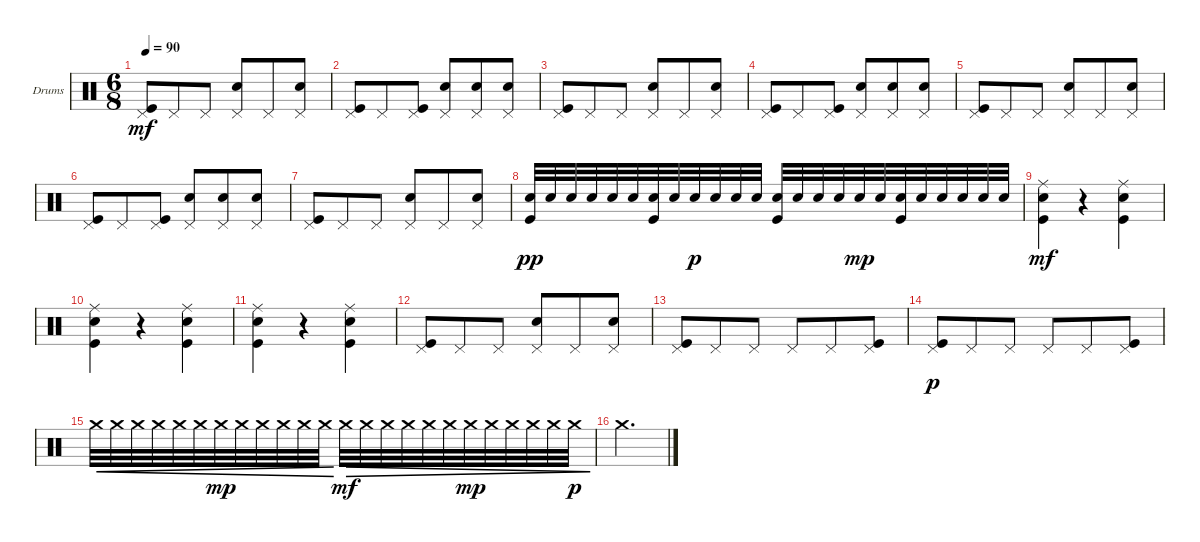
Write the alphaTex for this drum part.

\defaultSystemsLayout 4
\bracketExtendMode groupsimilarinstruments
\firstSystemTrackNameOrientation horizontal
\otherSystemsTrackNameOrientation horizontal
\track ("Drumkit" "Drums") {instrument percussion}
\staff {score}
\articulation defaults
\ts (6 8)
\tempo 90
\clef neutral
\scale
0.333333
\ks c
("Kick (hit)" "Pedal Hi-Hat (hit)").8{dy mf} "Pedal Hi-Hat (hit)".8 "Pedal Hi-Hat (hit)".8 ("Snare (hit) 2" "Pedal Hi-Hat (hit)").8 "Pedal Hi-Hat (hit)".8 ("Snare (hit) 2" "Pedal Hi-Hat (hit)").8 |
\scale
0.333333 ("Kick (hit)" "Pedal Hi-Hat (hit)").8 "Pedal Hi-Hat (hit)".8 ("Kick (hit)" "Pedal Hi-Hat (hit)").8 ("Snare (hit) 2" "Pedal Hi-Hat (hit)").8 ("Snare (hit) 2" "Pedal Hi-Hat (hit)").8 ("Snare (hit) 2" "Pedal Hi-Hat (hit)").8 |
\scale
0.333333 ("Kick (hit)" "Pedal Hi-Hat (hit)").8 "Pedal Hi-Hat (hit)".8 "Pedal Hi-Hat (hit)".8 ("Snare (hit) 2" "Pedal Hi-Hat (hit)").8 "Pedal Hi-Hat (hit)".8 ("Snare (hit) 2" "Pedal Hi-Hat (hit)").8 |
\scale
0.333333 ("Kick (hit)" "Pedal Hi-Hat (hit)").8 "Pedal Hi-Hat (hit)".8 ("Kick (hit)" "Pedal Hi-Hat (hit)").8 ("Snare (hit) 2" "Pedal Hi-Hat (hit)").8 ("Snare (hit) 2" "Pedal Hi-Hat (hit)").8 ("Snare (hit) 2" "Pedal Hi-Hat (hit)").8 |
\scale
0.333333 ("Kick (hit)" "Pedal Hi-Hat (hit)").8 "Pedal Hi-Hat (hit)".8 "Pedal Hi-Hat (hit)".8 ("Snare (hit) 2" "Pedal Hi-Hat (hit)").8 "Pedal Hi-Hat (hit)".8 ("Snare (hit) 2" "Pedal Hi-Hat (hit)").8 |
\scale
0.333333 ("Kick (hit)" "Pedal Hi-Hat (hit)").8 "Pedal Hi-Hat (hit)".8 ("Kick (hit)" "Pedal Hi-Hat (hit)").8 ("Snare (hit) 2" "Pedal Hi-Hat (hit)").8 ("Snare (hit) 2" "Pedal Hi-Hat (hit)").8 ("Snare (hit) 2" "Pedal Hi-Hat (hit)").8 |
\scale
0.333333 ("Kick (hit)" "Pedal Hi-Hat (hit)").8 "Pedal Hi-Hat (hit)".8 "Pedal Hi-Hat (hit)".8 ("Snare (hit) 2" "Pedal Hi-Hat (hit)").8 "Pedal Hi-Hat (hit)".8 ("Snare (hit) 2" "Pedal Hi-Hat (hit)").8 |
\scale
0.333333 ("Snare (hit) 2" "Kick (hit)").32{dy pp} "Snare (hit) 2".32 "Snare (hit) 2".32 "Snare (hit) 2".32 "Snare (hit) 2".32 "Snare (hit) 2".32 ("Snare (hit) 2" "Kick (hit)").32 "Snare (hit) 2".32 "Snare (hit) 2".32{dy p} "Snare (hit) 2".32 "Snare (hit) 2".32 "Snare (hit) 2".32 ("Snare (hit) 2" "Kick (hit)").32 "Snare (hit) 2".32 "Snare (hit) 2".32 "Snare (hit) 2".32 "Snare (hit) 2".32{dy mp} "Snare (hit) 2".32 ("Snare (hit) 2" "Kick (hit)").32 "Snare (hit) 2".32 "Snare (hit) 2".32 "Snare (hit) 2".32 "Snare (hit) 2".32 "Snare (hit) 2".32 |
\scale
0.333333 ("Kick (hit)" "Snare (hit) 2" "Ride (middle)").4{dy mf} r.4 ("Kick (hit)" "Snare (hit) 2" "Ride (middle)").4 |
\scale
0.333333 ("Kick (hit)" "Snare (hit) 2" "Ride (middle)").4 r.4 ("Kick (hit)" "Snare (hit) 2" "Ride (middle)").4 |
\scale
0.333333 ("Kick (hit)" "Snare (hit) 2" "Ride (middle)").4 r.4 ("Kick (hit)" "Snare (hit) 2" "Ride (middle)").4 |
\scale
0.333333 ("Kick (hit)" "Pedal Hi-Hat (hit)").8 "Pedal Hi-Hat (hit)".8 "Pedal Hi-Hat (hit)".8 ("Snare (hit) 2" "Pedal Hi-Hat (hit)").8 "Pedal Hi-Hat (hit)".8 ("Snare (hit) 2" "Pedal Hi-Hat (hit)").8 |
\scale
0.333333 ("Kick (hit)" "Pedal Hi-Hat (hit)").8 "Pedal Hi-Hat (hit)".8 "Pedal Hi-Hat (hit)".8 "Pedal Hi-Hat (hit)".8 "Pedal Hi-Hat (hit)".8 ("Pedal Hi-Hat (hit)" "Kick (hit)").8 |
\scale
0.333333 ("Kick (hit)" "Pedal Hi-Hat (hit)").8{dy p} "Pedal Hi-Hat (hit)".8 "Pedal Hi-Hat (hit)".8 "Pedal Hi-Hat (hit)".8 "Pedal Hi-Hat (hit)".8 ("Pedal Hi-Hat (hit)" "Kick (hit)").8 |
"Crash medium (hit)".32{cre} "Crash medium (hit)".32{cre} "Crash medium (hit)".32{cre} "Crash medium (hit)".32{cre} "Crash medium (hit)".32{cre} "Crash medium (hit)".32{cre} "Crash medium (hit)".32{cre dy mp} "Crash medium (hit)".32{cre} "Crash medium (hit)".32{cre} "Crash medium (hit)".32{cre} "Crash medium (hit)".32{cre} "Crash medium (hit)".32{cre} "Crash medium (hit)".32{dec dy mf} "Crash medium (hit)".32{dec} "Crash medium (hit)".32{dec} "Crash medium (hit)".32{dec} "Crash medium (hit)".32{dec} "Crash medium (hit)".32{dec} "Crash medium (hit)".32{dec dy mp} "Crash medium (hit)".32{dec} "Crash medium (hit)".32{dec} "Crash medium (hit)".32{dec} "Crash medium (hit)".32{dec} "Crash medium (hit)".32{dec dy p} |
"Crash medium (hit)".2{d}
